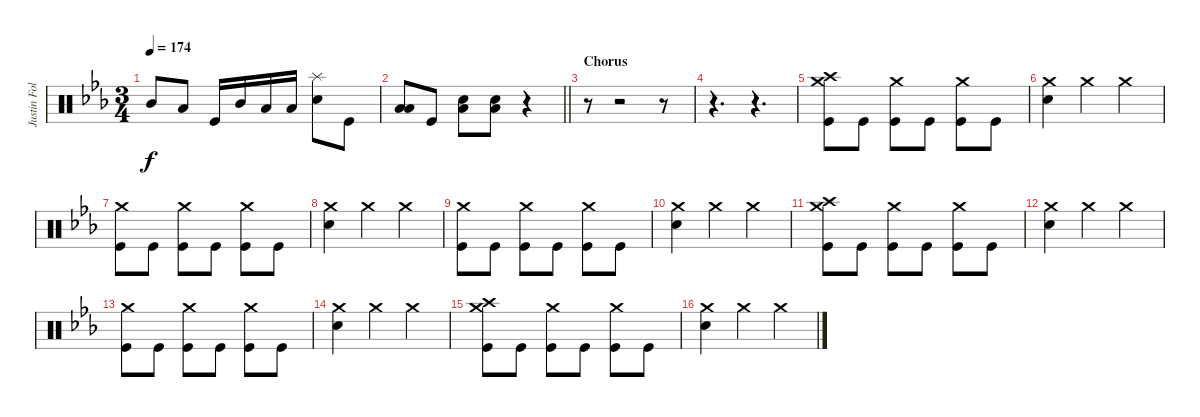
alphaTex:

\track ("Justin Foley" "Justin Fol") {instrument percussion}
\staff {score}
\articulation defaults
\ts (3 4)
\tempo 174
\clef neutral
\ks cminor "Mid Tom (hit)".8{dy f} "Low Tom (hit)".8 "Kick (hit)".16 "Mid Tom (hit)".16 "Low Tom (hit)".16 "Low Floor Tom (hit)".16
("Splash (hit)" "Snare (hit) 2").8 "Kick (hit)".8 |
\barLineRight lightlight
("Low Floor Tom (hit)" "Low Tom (hit)").8 "Kick (hit)".8 ("Low Floor Tom (hit)" "Snare (hit) 2").8 ("Low Floor Tom (hit)" "Snare (hit) 2").8 r.4 |
\section ("" "Chorus")
r.8 r.2 r.8 |
r.4{d} r.4{d} |
("Crash medium (hit)" "Kick (hit)" "Crash high (hit)").8 "Kick (hit)".8 ("Crash medium (hit)" "Kick (hit)").8 "Kick (hit)".8 ("Crash medium (hit)" "Kick (hit)").8 "Kick (hit)".8 |
("Crash medium (hit)" "Snare (hit) 2").4 "Crash medium (hit)".4 "Crash medium (hit)".4 |
("Crash medium (hit)" "Kick (hit)").8 "Kick (hit)".8 ("Crash medium (hit)" "Kick (hit)").8 "Kick (hit)".8 ("Crash medium (hit)" "Kick (hit)").8 "Kick (hit)".8 |
("Crash medium (hit)" "Snare (hit) 2").4 "Crash medium (hit)".4 "Crash medium (hit)".4 |
("Crash medium (hit)" "Kick (hit)").8 "Kick (hit)".8 ("Crash medium (hit)" "Kick (hit)").8 "Kick (hit)".8 ("Crash medium (hit)" "Kick (hit)").8 "Kick (hit)".8 |
("Crash medium (hit)" "Snare (hit) 2").4 "Crash medium (hit)".4 "Crash medium (hit)".4 |
("Crash high (hit)" "Kick (hit)" "Crash medium (hit)").8 "Kick (hit)".8 ("Crash medium (hit)" "Kick (hit)").8 "Kick (hit)".8 ("Crash medium (hit)" "Kick (hit)").8 "Kick (hit)".8 |
("Crash medium (hit)" "Snare (hit) 2").4 "Crash medium (hit)".4 "Crash medium (hit)".4 |
("Crash medium (hit)" "Kick (hit)").8 "Kick (hit)".8 ("Crash medium (hit)" "Kick (hit)").8 "Kick (hit)".8 ("Crash medium (hit)" "Kick (hit)").8 "Kick (hit)".8 |
("Crash medium (hit)" "Snare (hit) 2").4 "Crash medium (hit)".4 "Crash medium (hit)".4 |
("Crash medium (hit)" "Kick (hit)" "Crash high (hit)").8 "Kick (hit)".8 ("Crash medium (hit)" "Kick (hit)").8 "Kick (hit)".8 ("Crash medium (hit)" "Kick (hit)").8 "Kick (hit)".8 |
("Crash medium (hit)" "Snare (hit) 2").4 "Crash medium (hit)".4 "Crash medium (hit)".4
